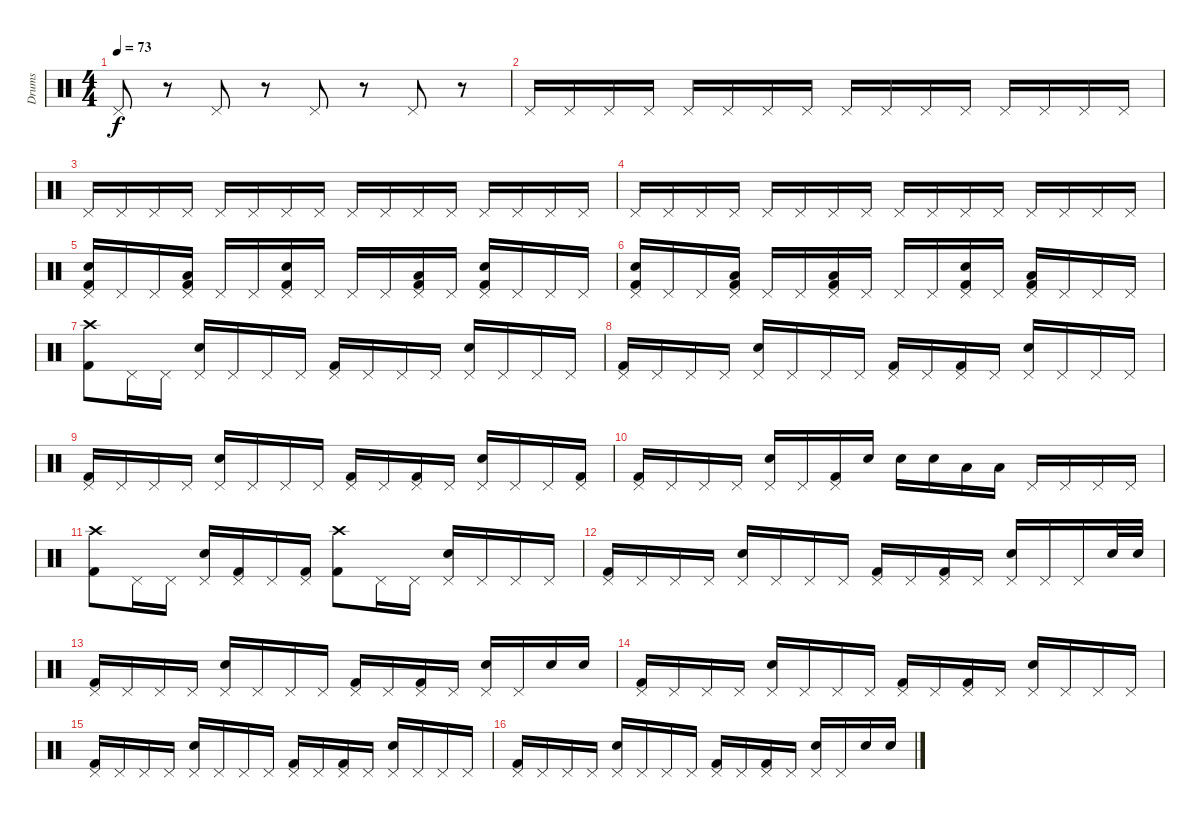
\track ("Drums" "Drums") {instrument percussion}
\staff {score}
\articulation defaults
\ts (4 4)
\tempo 73
\clef neutral
\ks c "Pedal Hi-Hat (hit)".8{dy f}
r.8 "Pedal Hi-Hat (hit)".8 r.8 "Pedal Hi-Hat (hit)".8 r.8 "Pedal Hi-Hat (hit)".8 r.8 |
"Pedal Hi-Hat (hit)".16 "Pedal Hi-Hat (hit)".16 "Pedal Hi-Hat (hit)".16 "Pedal Hi-Hat (hit)".16 "Pedal Hi-Hat (hit)".16 "Pedal Hi-Hat (hit)".16 "Pedal Hi-Hat (hit)".16 "Pedal Hi-Hat (hit)".16 "Pedal Hi-Hat (hit)".16 "Pedal Hi-Hat (hit)".16 "Pedal Hi-Hat (hit)".16 "Pedal Hi-Hat (hit)".16 "Pedal Hi-Hat (hit)".16 "Pedal Hi-Hat (hit)".16 "Pedal Hi-Hat (hit)".16 "Pedal Hi-Hat (hit)".16 |
"Pedal Hi-Hat (hit)".16 "Pedal Hi-Hat (hit)".16 "Pedal Hi-Hat (hit)".16 "Pedal Hi-Hat (hit)".16 "Pedal Hi-Hat (hit)".16 "Pedal Hi-Hat (hit)".16 "Pedal Hi-Hat (hit)".16 "Pedal Hi-Hat (hit)".16 "Pedal Hi-Hat (hit)".16 "Pedal Hi-Hat (hit)".16 "Pedal Hi-Hat (hit)".16 "Pedal Hi-Hat (hit)".16 "Pedal Hi-Hat (hit)".16 "Pedal Hi-Hat (hit)".16 "Pedal Hi-Hat (hit)".16 "Pedal Hi-Hat (hit)".16 |
"Pedal Hi-Hat (hit)".16 "Pedal Hi-Hat (hit)".16 "Pedal Hi-Hat (hit)".16 "Pedal Hi-Hat (hit)".16 "Pedal Hi-Hat (hit)".16 "Pedal Hi-Hat (hit)".16 "Pedal Hi-Hat (hit)".16 "Pedal Hi-Hat (hit)".16 "Pedal Hi-Hat (hit)".16 "Pedal Hi-Hat (hit)".16 "Pedal Hi-Hat (hit)".16 "Pedal Hi-Hat (hit)".16 "Pedal Hi-Hat (hit)".16 "Pedal Hi-Hat (hit)".16 "Pedal Hi-Hat (hit)".16 "Pedal Hi-Hat (hit)".16 |
("Pedal Hi-Hat (hit)" "Snare (hit) 2" "Kick (hit) 2").16 "Pedal Hi-Hat (hit)".16 "Pedal Hi-Hat (hit)".16 ("Pedal Hi-Hat (hit)" "Low Floor Tom (hit)" "Kick (hit) 2").16 "Pedal Hi-Hat (hit)".16 "Pedal Hi-Hat (hit)".16 ("Pedal Hi-Hat (hit)" "Snare (hit) 2" "Kick (hit) 2").16 "Pedal Hi-Hat (hit)".16 "Pedal Hi-Hat (hit)".16 "Pedal Hi-Hat (hit)".16 ("Pedal Hi-Hat (hit)" "Low Floor Tom (hit)" "Kick (hit) 2").16 "Pedal Hi-Hat (hit)".16 ("Pedal Hi-Hat (hit)" "Snare (hit) 2" "Kick (hit) 2").16 "Pedal Hi-Hat (hit)".16 "Pedal Hi-Hat (hit)".16 "Pedal Hi-Hat (hit)".16 |
("Pedal Hi-Hat (hit)" "Snare (hit) 2" "Kick (hit) 2").16 "Pedal Hi-Hat (hit)".16 "Pedal Hi-Hat (hit)".16 ("Pedal Hi-Hat (hit)" "Low Floor Tom (hit)" "Kick (hit) 2").16 "Pedal Hi-Hat (hit)".16 "Pedal Hi-Hat (hit)".16 ("Pedal Hi-Hat (hit)" "Low Floor Tom (hit)" "Kick (hit) 2").16 "Pedal Hi-Hat (hit)".16 "Pedal Hi-Hat (hit)".16 "Pedal Hi-Hat (hit)".16 ("Pedal Hi-Hat (hit)" "Snare (hit) 2" "Kick (hit) 2").16 "Pedal Hi-Hat (hit)".16 ("Pedal Hi-Hat (hit)" "Low Floor Tom (hit)" "Kick (hit) 2").16 "Pedal Hi-Hat (hit)".16 "Pedal Hi-Hat (hit)".16 "Pedal Hi-Hat (hit)".16 |
("Crash high (hit)" "Kick (hit) 2").8 "Pedal Hi-Hat (hit)".16 "Pedal Hi-Hat (hit)".16 ("Pedal Hi-Hat (hit)" "Snare (hit) 2").16 "Pedal Hi-Hat (hit)".16 "Pedal Hi-Hat (hit)".16 "Pedal Hi-Hat (hit)".16 ("Pedal Hi-Hat (hit)" "Kick (hit) 2").16 "Pedal Hi-Hat (hit)".16 "Pedal Hi-Hat (hit)".16 "Pedal Hi-Hat (hit)".16 ("Pedal Hi-Hat (hit)" "Snare (hit) 2").16 "Pedal Hi-Hat (hit)".16 "Pedal Hi-Hat (hit)".16 "Pedal Hi-Hat (hit)".16 |
("Pedal Hi-Hat (hit)" "Kick (hit) 2").16 "Pedal Hi-Hat (hit)".16 "Pedal Hi-Hat (hit)".16 "Pedal Hi-Hat (hit)".16 ("Pedal Hi-Hat (hit)" "Snare (hit) 2").16 "Pedal Hi-Hat (hit)".16 "Pedal Hi-Hat (hit)".16 "Pedal Hi-Hat (hit)".16 ("Pedal Hi-Hat (hit)" "Kick (hit) 2").16 "Pedal Hi-Hat (hit)".16 ("Pedal Hi-Hat (hit)" "Kick (hit) 2").16 "Pedal Hi-Hat (hit)".16 ("Pedal Hi-Hat (hit)" "Snare (hit) 2").16 "Pedal Hi-Hat (hit)".16 "Pedal Hi-Hat (hit)".16 "Pedal Hi-Hat (hit)".16 |
("Pedal Hi-Hat (hit)" "Kick (hit) 2").16 "Pedal Hi-Hat (hit)".16 "Pedal Hi-Hat (hit)".16 "Pedal Hi-Hat (hit)".16 ("Pedal Hi-Hat (hit)" "Snare (hit) 2").16 "Pedal Hi-Hat (hit)".16 "Pedal Hi-Hat (hit)".16 "Pedal Hi-Hat (hit)".16 ("Pedal Hi-Hat (hit)" "Kick (hit) 2").16 "Pedal Hi-Hat (hit)".16 ("Pedal Hi-Hat (hit)" "Kick (hit) 2").16 "Pedal Hi-Hat (hit)".16 ("Pedal Hi-Hat (hit)" "Snare (hit) 2").16 "Pedal Hi-Hat (hit)".16 "Pedal Hi-Hat (hit)".16 ("Pedal Hi-Hat (hit)" "Kick (hit) 2").16 |
("Pedal Hi-Hat (hit)" "Kick (hit) 2").16 "Pedal Hi-Hat (hit)".16 "Pedal Hi-Hat (hit)".16 "Pedal Hi-Hat (hit)".16 ("Pedal Hi-Hat (hit)" "Snare (hit) 2").16 "Pedal Hi-Hat (hit)".16 ("Pedal Hi-Hat (hit)" "Kick (hit) 2").16 "Snare (hit) 2".16 "Snare (hit) 2".16 "Snare (hit) 2".16 "Low Floor Tom (hit)".16 "Low Floor Tom (hit)".16 "Pedal Hi-Hat (hit)".16 "Pedal Hi-Hat (hit)".16 "Pedal Hi-Hat (hit)".16 "Pedal Hi-Hat (hit)".16 |
("Crash high (hit)" "Kick (hit) 2").8 "Pedal Hi-Hat (hit)".16 "Pedal Hi-Hat (hit)".16 ("Pedal Hi-Hat (hit)" "Snare (hit) 2").16 ("Pedal Hi-Hat (hit)" "Kick (hit) 2").16 "Pedal Hi-Hat (hit)".16 ("Pedal Hi-Hat (hit)" "Kick (hit) 2").16 ("Crash high (hit)" "Kick (hit) 2").8 "Pedal Hi-Hat (hit)".16 "Pedal Hi-Hat (hit)".16 ("Pedal Hi-Hat (hit)" "Snare (hit) 2").16 "Pedal Hi-Hat (hit)".16 "Pedal Hi-Hat (hit)".16 "Pedal Hi-Hat (hit)".16 |
("Pedal Hi-Hat (hit)" "Kick (hit) 2").16 "Pedal Hi-Hat (hit)".16 "Pedal Hi-Hat (hit)".16 "Pedal Hi-Hat (hit)".16 ("Pedal Hi-Hat (hit)" "Snare (hit) 2").16 "Pedal Hi-Hat (hit)".16 "Pedal Hi-Hat (hit)".16 "Pedal Hi-Hat (hit)".16 ("Pedal Hi-Hat (hit)" "Kick (hit) 2").16 "Pedal Hi-Hat (hit)".16 ("Pedal Hi-Hat (hit)" "Kick (hit) 2").16 "Pedal Hi-Hat (hit)".16 ("Pedal Hi-Hat (hit)" "Snare (hit) 2").16 "Pedal Hi-Hat (hit)".16 "Pedal Hi-Hat (hit)".16 "Snare (hit) 2".32 "Snare (hit) 2".32 |
("Pedal Hi-Hat (hit)" "Kick (hit) 2").16 "Pedal Hi-Hat (hit)".16 "Pedal Hi-Hat (hit)".16 "Pedal Hi-Hat (hit)".16 ("Pedal Hi-Hat (hit)" "Snare (hit) 2").16 "Pedal Hi-Hat (hit)".16 "Pedal Hi-Hat (hit)".16 "Pedal Hi-Hat (hit)".16 ("Pedal Hi-Hat (hit)" "Kick (hit) 2").16 "Pedal Hi-Hat (hit)".16 ("Pedal Hi-Hat (hit)" "Kick (hit) 2").16 "Pedal Hi-Hat (hit)".16 ("Pedal Hi-Hat (hit)" "Snare (hit) 2").16 "Pedal Hi-Hat (hit)".16 "Snare (hit) 2".16 "Snare (hit) 2".16 |
("Pedal Hi-Hat (hit)" "Kick (hit) 2").16 "Pedal Hi-Hat (hit)".16 "Pedal Hi-Hat (hit)".16 "Pedal Hi-Hat (hit)".16 ("Pedal Hi-Hat (hit)" "Snare (hit) 2").16 "Pedal Hi-Hat (hit)".16 "Pedal Hi-Hat (hit)".16 "Pedal Hi-Hat (hit)".16 ("Pedal Hi-Hat (hit)" "Kick (hit) 2").16 "Pedal Hi-Hat (hit)".16 ("Pedal Hi-Hat (hit)" "Kick (hit) 2").16 "Pedal Hi-Hat (hit)".16 ("Pedal Hi-Hat (hit)" "Snare (hit) 2").16 "Pedal Hi-Hat (hit)".16 "Pedal Hi-Hat (hit)".16 "Pedal Hi-Hat (hit)".16 |
("Pedal Hi-Hat (hit)" "Kick (hit) 2").16 "Pedal Hi-Hat (hit)".16 "Pedal Hi-Hat (hit)".16 "Pedal Hi-Hat (hit)".16 ("Pedal Hi-Hat (hit)" "Snare (hit) 2").16 "Pedal Hi-Hat (hit)".16 "Pedal Hi-Hat (hit)".16 "Pedal Hi-Hat (hit)".16 ("Pedal Hi-Hat (hit)" "Kick (hit) 2").16 "Pedal Hi-Hat (hit)".16 ("Pedal Hi-Hat (hit)" "Kick (hit) 2").16 "Pedal Hi-Hat (hit)".16 ("Pedal Hi-Hat (hit)" "Snare (hit) 2").16 "Pedal Hi-Hat (hit)".16 "Pedal Hi-Hat (hit)".16 "Pedal Hi-Hat (hit)".16 |
("Pedal Hi-Hat (hit)" "Kick (hit) 2").16 "Pedal Hi-Hat (hit)".16 "Pedal Hi-Hat (hit)".16 "Pedal Hi-Hat (hit)".16 ("Pedal Hi-Hat (hit)" "Snare (hit) 2").16 "Pedal Hi-Hat (hit)".16 "Pedal Hi-Hat (hit)".16 "Pedal Hi-Hat (hit)".16 ("Pedal Hi-Hat (hit)" "Kick (hit) 2").16 "Pedal Hi-Hat (hit)".16 ("Pedal Hi-Hat (hit)" "Kick (hit) 2").16 "Pedal Hi-Hat (hit)".16 ("Pedal Hi-Hat (hit)" "Snare (hit) 2").16 "Pedal Hi-Hat (hit)".16 "Snare (hit) 2".16 "Snare (hit) 2".16
